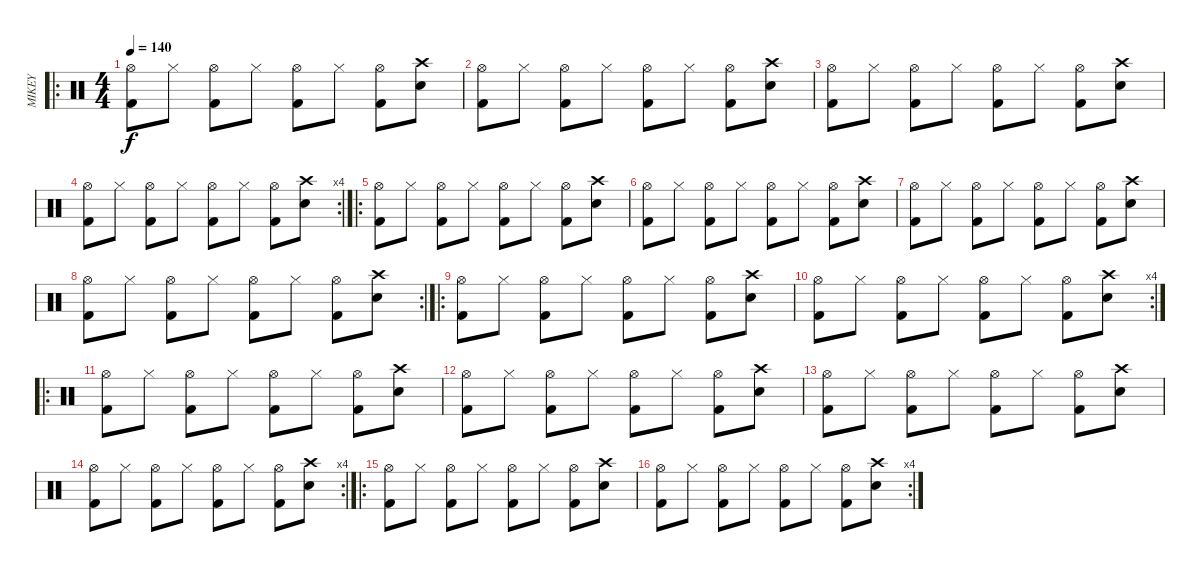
\track ("MIKEY" "MIKEY") {instrument percussion}
\staff {score}
\articulation defaults
\ro
\ts (4 4)
\tempo 140
\clef neutral
\ks c
("Kick (hit) 2" "Hi-Hat (open)").8{dy f} "Hi-Hat (closed)".8 ("Kick (hit) 2" "Hi-Hat (open)").8 "Hi-Hat (closed)".8 ("Kick (hit) 2" "Hi-Hat (open)").8 "Hi-Hat (closed)".8 ("Kick (hit) 2" "Hi-Hat (open)").8 ("Snare (hit) 2" "Crash high (hit)").8 |
("Kick (hit) 2" "Hi-Hat (open)").8 "Hi-Hat (closed)".8 ("Kick (hit) 2" "Hi-Hat (open)").8 "Hi-Hat (closed)".8 ("Kick (hit) 2" "Hi-Hat (open)").8 "Hi-Hat (closed)".8 ("Kick (hit) 2" "Hi-Hat (open)").8 ("Snare (hit) 2" "Crash high (hit)").8 |
("Kick (hit) 2" "Hi-Hat (open)").8 "Hi-Hat (closed)".8 ("Kick (hit) 2" "Hi-Hat (open)").8 "Hi-Hat (closed)".8 ("Kick (hit) 2" "Hi-Hat (open)").8 "Hi-Hat (closed)".8 ("Kick (hit) 2" "Hi-Hat (open)").8 ("Snare (hit) 2" "Crash high (hit)").8 |
\rc 4
("Kick (hit) 2" "Hi-Hat (open)").8 "Hi-Hat (closed)".8 ("Kick (hit) 2" "Hi-Hat (open)").8 "Hi-Hat (closed)".8 ("Kick (hit) 2" "Hi-Hat (open)").8 "Hi-Hat (closed)".8 ("Kick (hit) 2" "Hi-Hat (open)").8 ("Snare (hit) 2" "Crash high (hit)").8 |
\ro
("Kick (hit) 2" "Hi-Hat (open)").8 "Hi-Hat (closed)".8 ("Kick (hit) 2" "Hi-Hat (open)").8 "Hi-Hat (closed)".8 ("Kick (hit) 2" "Hi-Hat (open)").8 "Hi-Hat (closed)".8 ("Kick (hit) 2" "Hi-Hat (open)").8 ("Snare (hit) 2" "Crash high (hit)").8 |
("Kick (hit) 2" "Hi-Hat (open)").8 "Hi-Hat (closed)".8 ("Kick (hit) 2" "Hi-Hat (open)").8 "Hi-Hat (closed)".8 ("Kick (hit) 2" "Hi-Hat (open)").8 "Hi-Hat (closed)".8 ("Kick (hit) 2" "Hi-Hat (open)").8 ("Snare (hit) 2" "Crash high (hit)").8 |
("Kick (hit) 2" "Hi-Hat (open)").8 "Hi-Hat (closed)".8 ("Kick (hit) 2" "Hi-Hat (open)").8 "Hi-Hat (closed)".8 ("Kick (hit) 2" "Hi-Hat (open)").8 "Hi-Hat (closed)".8 ("Kick (hit) 2" "Hi-Hat (open)").8 ("Snare (hit) 2" "Crash high (hit)").8 |
\rc 2
("Kick (hit) 2" "Hi-Hat (open)").8 "Hi-Hat (closed)".8 ("Kick (hit) 2" "Hi-Hat (open)").8 "Hi-Hat (closed)".8 ("Kick (hit) 2" "Hi-Hat (open)").8 "Hi-Hat (closed)".8 ("Kick (hit) 2" "Hi-Hat (open)").8 ("Snare (hit) 2" "Crash high (hit)").8 |
\ro
("Kick (hit) 2" "Hi-Hat (open)").8 "Hi-Hat (closed)".8 ("Kick (hit) 2" "Hi-Hat (open)").8 "Hi-Hat (closed)".8 ("Kick (hit) 2" "Hi-Hat (open)").8 "Hi-Hat (closed)".8 ("Kick (hit) 2" "Hi-Hat (open)").8 ("Snare (hit) 2" "Crash high (hit)").8 |
\rc 4
("Kick (hit) 2" "Hi-Hat (open)").8 "Hi-Hat (closed)".8 ("Kick (hit) 2" "Hi-Hat (open)").8 "Hi-Hat (closed)".8 ("Kick (hit) 2" "Hi-Hat (open)").8 "Hi-Hat (closed)".8 ("Kick (hit) 2" "Hi-Hat (open)").8 ("Snare (hit) 2" "Crash high (hit)").8 |
\ro
("Kick (hit) 2" "Hi-Hat (open)").8 "Hi-Hat (closed)".8 ("Kick (hit) 2" "Hi-Hat (open)").8 "Hi-Hat (closed)".8 ("Kick (hit) 2" "Hi-Hat (open)").8 "Hi-Hat (closed)".8 ("Kick (hit) 2" "Hi-Hat (open)").8 ("Snare (hit) 2" "Crash high (hit)").8 |
("Kick (hit) 2" "Hi-Hat (open)").8 "Hi-Hat (closed)".8 ("Kick (hit) 2" "Hi-Hat (open)").8 "Hi-Hat (closed)".8 ("Kick (hit) 2" "Hi-Hat (open)").8 "Hi-Hat (closed)".8 ("Kick (hit) 2" "Hi-Hat (open)").8 ("Snare (hit) 2" "Crash high (hit)").8 |
("Kick (hit) 2" "Hi-Hat (open)").8 "Hi-Hat (closed)".8 ("Kick (hit) 2" "Hi-Hat (open)").8 "Hi-Hat (closed)".8 ("Kick (hit) 2" "Hi-Hat (open)").8 "Hi-Hat (closed)".8 ("Kick (hit) 2" "Hi-Hat (open)").8 ("Snare (hit) 2" "Crash high (hit)").8 |
\rc 4
("Kick (hit) 2" "Hi-Hat (open)").8 "Hi-Hat (closed)".8 ("Kick (hit) 2" "Hi-Hat (open)").8 "Hi-Hat (closed)".8 ("Kick (hit) 2" "Hi-Hat (open)").8 "Hi-Hat (closed)".8 ("Kick (hit) 2" "Hi-Hat (open)").8 ("Snare (hit) 2" "Crash high (hit)").8 |
\ro
("Kick (hit) 2" "Hi-Hat (open)").8 "Hi-Hat (closed)".8 ("Kick (hit) 2" "Hi-Hat (open)").8 "Hi-Hat (closed)".8 ("Kick (hit) 2" "Hi-Hat (open)").8 "Hi-Hat (closed)".8 ("Kick (hit) 2" "Hi-Hat (open)").8 ("Snare (hit) 2" "Crash high (hit)").8 |
\rc 4
("Kick (hit) 2" "Hi-Hat (open)").8 "Hi-Hat (closed)".8 ("Kick (hit) 2" "Hi-Hat (open)").8 "Hi-Hat (closed)".8 ("Kick (hit) 2" "Hi-Hat (open)").8 "Hi-Hat (closed)".8 ("Kick (hit) 2" "Hi-Hat (open)").8 ("Snare (hit) 2" "Crash high (hit)").8
